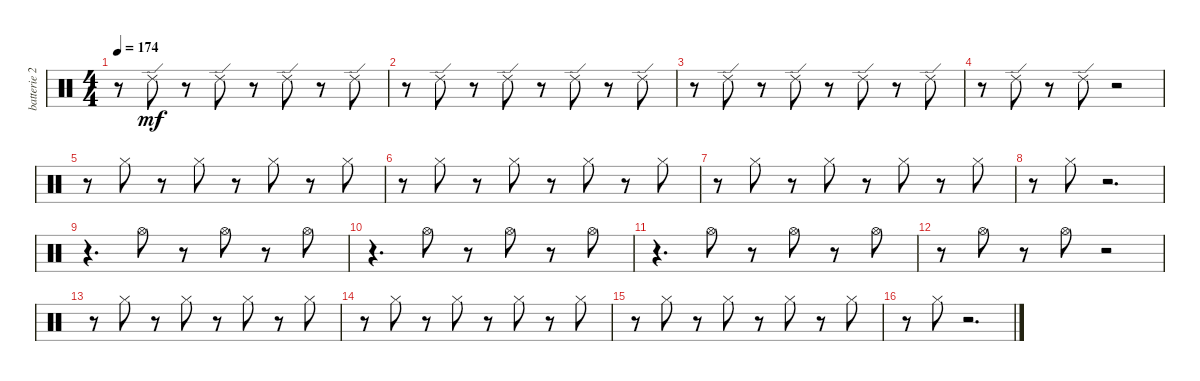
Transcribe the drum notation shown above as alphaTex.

\track ("batterie 2" "batterie 2") {instrument percussion}
\staff {score}
\articulation defaults
\ts (4 4)
\tempo 174
\clef neutral
\ks c
r.8{dy mp} "Ride (edge) 2".8{dy mf} r.8 "Ride (edge) 2".8 r.8 "Ride (edge) 2".8 r.8 "Ride (edge) 2".8 |
r.8 "Ride (edge) 2".8 r.8 "Ride (edge) 2".8 r.8 "Ride (edge) 2".8 r.8 "Ride (edge) 2".8 |
r.8 "Ride (edge) 2".8 r.8 "Ride (edge) 2".8 r.8 "Ride (edge) 2".8 r.8 "Ride (edge) 2".8 |
r.8 "Ride (edge) 2".8 r.8 "Ride (edge) 2".8 r.2 |
r.8 "Hi-Hat (closed)".8 r.8 "Hi-Hat (closed)".8 r.8 "Hi-Hat (closed)".8 r.8 "Hi-Hat (closed)".8 |
r.8 "Hi-Hat (closed)".8 r.8 "Hi-Hat (closed)".8 r.8 "Hi-Hat (closed)".8 r.8 "Hi-Hat (closed)".8 |
r.8 "Hi-Hat (closed)".8 r.8 "Hi-Hat (closed)".8 r.8 "Hi-Hat (closed)".8 r.8 "Hi-Hat (closed)".8 |
r.8 "Hi-Hat (closed)".8 r.2{d} |
r.4{d} "Hi-Hat (open)".8 r.8 "Hi-Hat (open)".8 r.8 "Hi-Hat (open)".8 |
r.4{d} "Hi-Hat (open)".8 r.8 "Hi-Hat (open)".8 r.8 "Hi-Hat (open)".8 |
r.4{d} "Hi-Hat (open)".8 r.8 "Hi-Hat (open)".8 r.8 "Hi-Hat (open)".8 |
r.8 "Hi-Hat (open)".8 r.8 "Hi-Hat (open)".8 r.2 |
r.8 "Hi-Hat (closed)".8 r.8 "Hi-Hat (closed)".8 r.8 "Hi-Hat (closed)".8 r.8 "Hi-Hat (closed)".8 |
r.8 "Hi-Hat (closed)".8 r.8 "Hi-Hat (closed)".8 r.8 "Hi-Hat (closed)".8 r.8 "Hi-Hat (closed)".8 |
r.8 "Hi-Hat (closed)".8 r.8 "Hi-Hat (closed)".8 r.8 "Hi-Hat (closed)".8 r.8 "Hi-Hat (closed)".8 |
r.8 "Hi-Hat (closed)".8 r.2{d}
